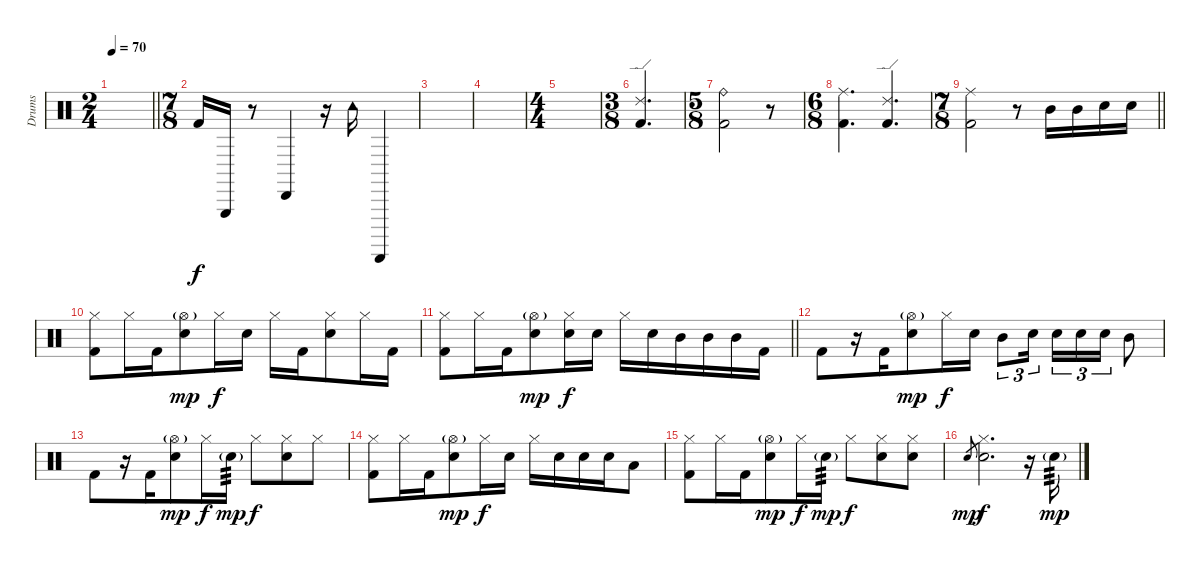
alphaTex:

\track ("Drums" "Drums") {instrument percussion}
\staff {score}
\articulation defaults
\ts (2 4)
\tempo 70
\clef neutral
\barLineRight lightlight
\ks c
|
\ts (7 8)
"Kick (hit) 2".16 "Triangle (hit)".16 r.8 "Cabasa (hit)".4 r.16 "Tambourine (hit)".16 "Guiro (scrap-return)".4 |
|
|
\ts (4 4)
|
\ts (3 8)
("Ride (edge) 2" "Kick (hit) 2").4{d} |
\ts (5 8)
("Ride (bell)" "Kick (hit) 2").2 r.8 |
\ts (6 8)
("Ride (middle)" "Kick (hit) 2").4{d} ("Ride (edge) 2" "Kick (hit) 2").4{d} |
\ts (7 8)
\barLineRight lightlight
("Ride (middle)" "Kick (hit) 2").2 r.8 "Mid Tom (hit)".16 "Mid Tom (hit)".16 "Electric Snare (hit)".16 "Electric Snare (hit)".16 |
("Hi-Hat (closed)" "Kick (hit) 2").8 "Hi-Hat (closed)".16 "Kick (hit) 2".16 ("Hi-Hat (open)"{g} "Electric Snare (hit)").8{dy mp} "Hi-Hat (closed)".16{dy f} "Electric Snare (hit)".16 "Hi-Hat (closed)".16 "Kick (hit) 2".16 ("Hi-Hat (closed)" "Electric Snare (hit)").8 "Hi-Hat (closed)".16 "Kick (hit) 2".16 |
\barLineRight lightlight
("Hi-Hat (closed)" "Kick (hit) 2").8 "Hi-Hat (closed)".16 "Kick (hit) 2".16 ("Hi-Hat (open)"{g} "Electric Snare (hit)").8{dy mp} ("Hi-Hat (closed)" "Electric Snare (hit)").16{dy f} "Electric Snare (hit)".16 "Hi-Hat (closed)".16 "Electric Snare (hit)".16 "Mid Tom (hit)".16 "Mid Tom (hit)".16 "Mid Tom (hit)".16 "Kick (hit) 2".16 |
"Kick (hit) 2".8 r.16 "Kick (hit) 2".16 ("Hi-Hat (open)"{g} "Electric Snare (hit)").8{dy mp} "Hi-Hat (closed)".16{dy f} "Electric Snare (hit)".16 "Mid Tom (hit)".8{tu (3 2)} "Electric Snare (hit)".16{tu (3 2)} "Electric Snare (hit)".16{tu (3 2)} "Electric Snare (hit)".16{tu (3 2)} "Electric Snare (hit)".16{tu (3 2)} "Mid Tom (hit)".8 |
"Kick (hit) 2".8 r.16 "Kick (hit) 2".16 ("Hi-Hat (open)"{g} "Electric Snare (hit)").8{dy mp} "Hi-Hat (closed)".16{dy f} "Electric Snare (hit)"{g}.16{tp 3 dy mp} "Hi-Hat (closed)".8{dy f} ("Hi-Hat (closed)" "Electric Snare (hit)").8 "Hi-Hat (closed)".8 |
("Hi-Hat (closed)" "Kick (hit) 2").8 "Hi-Hat (closed)".16 "Kick (hit) 2".16 ("Hi-Hat (open)"{g} "Electric Snare (hit)").8{dy mp} "Hi-Hat (closed)".16{dy f} "Electric Snare (hit)".16 "Hi-Hat (closed)".16 "Electric Snare (hit)".16 "Electric Snare (hit)".16 "Electric Snare (hit)".16 "Low Tom (hit)".8 |
("Hi-Hat (closed)" "Kick (hit) 2").8 "Hi-Hat (closed)".16 "Kick (hit) 2".16 ("Hi-Hat (open)"{g} "Electric Snare (hit)").8{dy mp} "Hi-Hat (closed)".16{dy f} "Electric Snare (hit)"{g}.16{tp 3 dy mp} "Hi-Hat (closed)".8{dy f} ("Hi-Hat (closed)" "Electric Snare (hit)").8 ("Hi-Hat (closed)" "Electric Snare (hit)").8 |
"Electric Snare (hit)".8{gr dy mp} ("Hi-Hat (closed)" "Electric Snare (hit)").2{d dy f} r.16 "Electric Snare (hit)"{g}.16{tp 3 dy mp}
